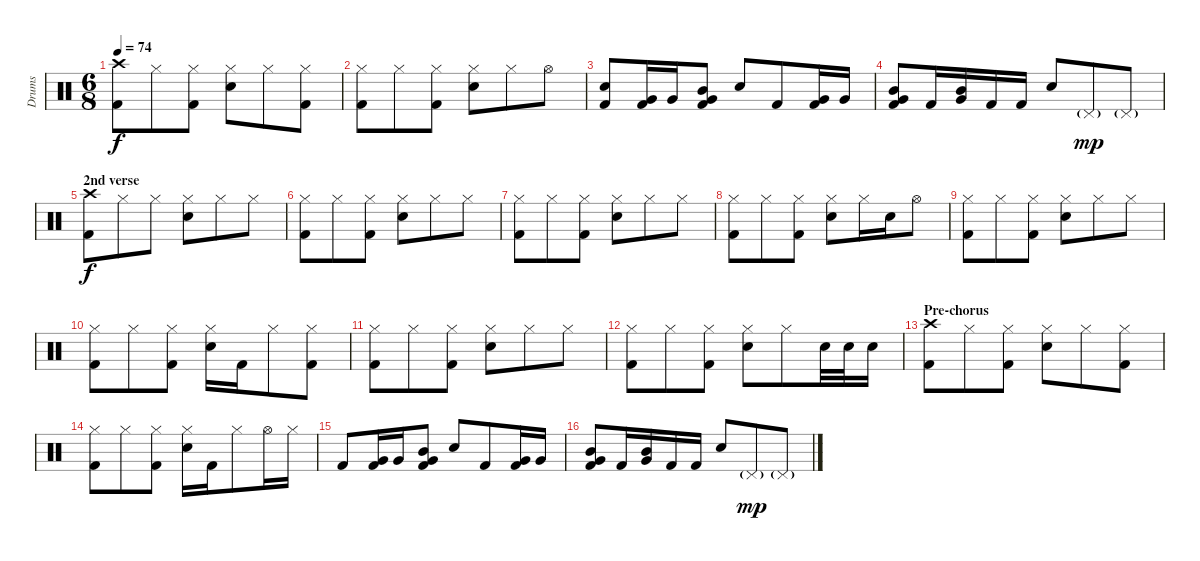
\track ("Drums" "Drums") {instrument percussion}
\staff {score}
\articulation defaults
\ts (6 8)
\tempo 74
\clef neutral
\ks c
("Crash high (hit)" "Kick (hit) 2").8{dy f} "Hi-Hat (closed)".8 ("Hi-Hat (closed)" "Kick (hit) 2").8 ("Hi-Hat (closed)" "Electric Snare (hit)").8 "Hi-Hat (closed)".8 ("Hi-Hat (closed)" "Kick (hit) 2").8 |
("Hi-Hat (closed)" "Kick (hit) 2").8 "Hi-Hat (closed)".8 ("Hi-Hat (closed)" "Kick (hit) 2").8 ("Hi-Hat (closed)" "Electric Snare (hit)").8 "Hi-Hat (closed)".8 "Hi-Hat (open)".8 |
("Electric Snare (hit)" "Kick (hit) 2").8 ("Very Low Tom (hit)" "Kick (hit) 2").16 "Very Low Tom (hit)".16 ("Mid Tom (hit)" "Very Low Tom (hit)" "Kick (hit) 2").8 "Electric Snare (hit)".8 "Kick (hit) 2".8 ("Very Low Tom (hit)" "Kick (hit) 2").16 "Very Low Tom (hit)".16 |
("Mid Tom (hit)" "Very Low Tom (hit)" "Kick (hit) 2").8 "Kick (hit) 2".16 ("Mid Tom (hit)" "Very Low Tom (hit)").16 "Kick (hit) 2".16 "Kick (hit) 2".16 "Electric Snare (hit)".8 "Pedal Hi-Hat (hit)"{g}.8{dy mp} "Pedal Hi-Hat (hit)"{g}.8 |
\section ("" "2nd verse")
("Crash high (hit)" "Kick (hit) 2").8{dy f} "Hi-Hat (closed)".8 "Hi-Hat (closed)".8 ("Hi-Hat (closed)" "Electric Snare (hit)").8 "Hi-Hat (closed)".8 "Hi-Hat (closed)".8 |
("Hi-Hat (closed)" "Kick (hit) 2").8 "Hi-Hat (closed)".8 ("Hi-Hat (closed)" "Kick (hit) 2").8 ("Hi-Hat (closed)" "Electric Snare (hit)").8 "Hi-Hat (closed)".8 "Hi-Hat (closed)".8 |
("Hi-Hat (closed)" "Kick (hit) 2").8 "Hi-Hat (closed)".8 ("Hi-Hat (closed)" "Kick (hit) 2").8 ("Hi-Hat (closed)" "Electric Snare (hit)").8 "Hi-Hat (closed)".8 "Hi-Hat (closed)".8 |
("Hi-Hat (closed)" "Kick (hit) 2").8 "Hi-Hat (closed)".8 ("Hi-Hat (closed)" "Kick (hit) 2").8 ("Hi-Hat (closed)" "Electric Snare (hit)").8 "Hi-Hat (closed)".16 "Electric Snare (hit)".16 "Hi-Hat (open)".8 |
("Hi-Hat (closed)" "Kick (hit) 2").8 "Hi-Hat (closed)".8 ("Hi-Hat (closed)" "Kick (hit) 2").8 ("Hi-Hat (closed)" "Electric Snare (hit)").8 "Hi-Hat (closed)".8 "Hi-Hat (closed)".8 |
("Hi-Hat (closed)" "Kick (hit) 2").8 "Hi-Hat (closed)".8 ("Hi-Hat (closed)" "Kick (hit) 2").8 ("Hi-Hat (closed)" "Electric Snare (hit)").16 "Kick (hit) 2".16 "Hi-Hat (closed)".8 ("Hi-Hat (closed)" "Kick (hit) 2").8 |
("Hi-Hat (closed)" "Kick (hit) 2").8 "Hi-Hat (closed)".8 ("Hi-Hat (closed)" "Kick (hit) 2").8 ("Hi-Hat (closed)" "Electric Snare (hit)").8 "Hi-Hat (closed)".8 "Hi-Hat (closed)".8 |
("Hi-Hat (closed)" "Kick (hit) 2").8 "Hi-Hat (closed)".8 ("Hi-Hat (closed)" "Kick (hit) 2").8 ("Hi-Hat (closed)" "Electric Snare (hit)").8 "Hi-Hat (closed)".8 "Electric Snare (hit)".32 "Electric Snare (hit)".32 "Electric Snare (hit)".16 |
\section ("" "Pre-chorus")
("Crash high (hit)" "Kick (hit) 2").8 "Hi-Hat (closed)".8 ("Hi-Hat (closed)" "Kick (hit) 2").8 ("Hi-Hat (closed)" "Electric Snare (hit)").8 "Hi-Hat (closed)".8 ("Hi-Hat (closed)" "Kick (hit) 2").8 |
("Hi-Hat (closed)" "Kick (hit) 2").8 "Hi-Hat (closed)".8 ("Hi-Hat (closed)" "Kick (hit) 2").8 ("Hi-Hat (closed)" "Electric Snare (hit)").16 "Kick (hit) 2".16 "Hi-Hat (closed)".8 "Hi-Hat (open)".16 "Hi-Hat (closed)".16 |
"Kick (hit) 2".8 ("Very Low Tom (hit)" "Kick (hit) 2").16 "Very Low Tom (hit)".16 ("Mid Tom (hit)" "Very Low Tom (hit)" "Kick (hit) 2").8 "Electric Snare (hit)".8 "Kick (hit) 2".8 ("Very Low Tom (hit)" "Kick (hit) 2").16 "Very Low Tom (hit)".16 |
("Mid Tom (hit)" "Very Low Tom (hit)" "Kick (hit) 2").8 "Kick (hit) 2".16 ("Mid Tom (hit)" "Very Low Tom (hit)").16 "Kick (hit) 2".16 "Kick (hit) 2".16 "Electric Snare (hit)".8 "Pedal Hi-Hat (hit)"{g}.8{dy mp} "Pedal Hi-Hat (hit)"{g}.8
